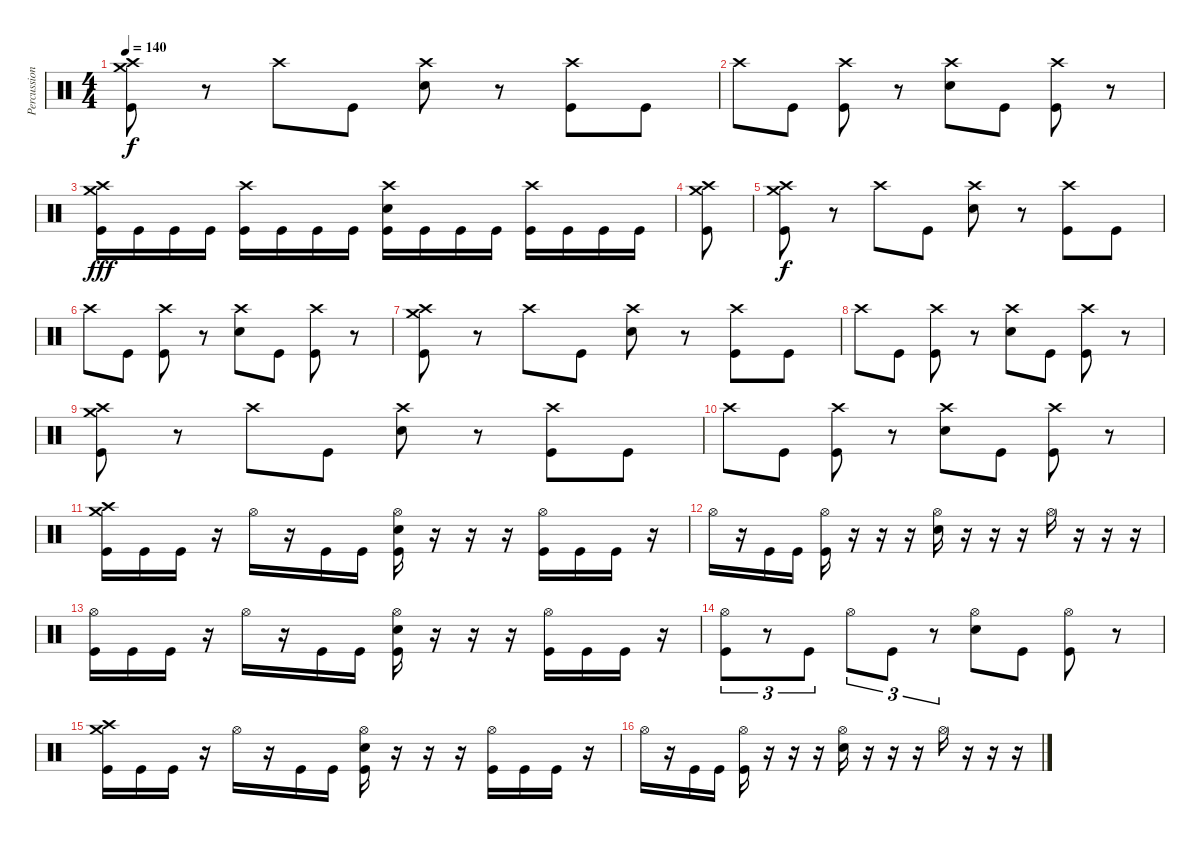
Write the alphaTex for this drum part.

\track ("Percussion" "Percussion") {instrument percussion}
\staff {score}
\articulation defaults
\ts (4 4)
\tempo 140
\clef neutral
\ks c
("Crash medium (hit)" "Crash high (hit)" "Kick (hit)").8{dy f} r.8 "Crash high (hit)".8 "Kick (hit)".8 ("Crash high (hit)" "Snare (hit) 2").8 r.8 ("Crash high (hit)" "Kick (hit)").8 "Kick (hit)".8 |
"Crash high (hit)".8 "Kick (hit)".8 ("Crash high (hit)" "Kick (hit)").8 r.8 ("Crash high (hit)" "Snare (hit) 2").8 "Kick (hit)".8 ("Crash high (hit)" "Kick (hit)").8 r.8 |
("Crash high (hit)" "Crash medium (hit)" "Kick (hit)").16{dy fff} "Kick (hit)".16 "Kick (hit)".16 "Kick (hit)".16 ("Crash high (hit)" "Kick (hit)").16 "Kick (hit)".16 "Kick (hit)".16 "Kick (hit)".16 ("Crash high (hit)" "Snare (hit) 2" "Kick (hit)").16 "Kick (hit)".16 "Kick (hit)".16 "Kick (hit)".16 ("Crash high (hit)" "Kick (hit)").16 "Kick (hit)".16 "Kick (hit)".16 "Kick (hit)".16 |
("Crash medium (hit)" "Crash high (hit)" "Kick (hit)").8 |
("Crash medium (hit)" "Crash high (hit)" "Kick (hit)").8{dy f} r.8 "Crash high (hit)".8 "Kick (hit)".8 ("Crash high (hit)" "Snare (hit) 2").8 r.8 ("Crash high (hit)" "Kick (hit)").8 "Kick (hit)".8 |
"Crash high (hit)".8 "Kick (hit)".8 ("Crash high (hit)" "Kick (hit)").8 r.8 ("Crash high (hit)" "Snare (hit) 2").8 "Kick (hit)".8 ("Crash high (hit)" "Kick (hit)").8 r.8 |
("Crash medium (hit)" "Crash high (hit)" "Kick (hit)").8 r.8 "Crash high (hit)".8 "Kick (hit)".8 ("Crash high (hit)" "Snare (hit) 2").8 r.8 ("Crash high (hit)" "Kick (hit)").8 "Kick (hit)".8 |
"Crash high (hit)".8 "Kick (hit)".8 ("Crash high (hit)" "Kick (hit)").8 r.8 ("Crash high (hit)" "Snare (hit) 2").8 "Kick (hit)".8 ("Crash high (hit)" "Kick (hit)").8 r.8 |
("Crash medium (hit)" "Crash high (hit)" "Kick (hit)").8 r.8 "Crash high (hit)".8 "Kick (hit)".8 ("Crash high (hit)" "Snare (hit) 2").8 r.8 ("Crash high (hit)" "Kick (hit)").8 "Kick (hit)".8 |
"Crash high (hit)".8 "Kick (hit)".8 ("Crash high (hit)" "Kick (hit)").8 r.8 ("Crash high (hit)" "Snare (hit) 2").8 "Kick (hit)".8 ("Crash high (hit)" "Kick (hit)").8 r.8 |
("Crash high (hit)" "Crash medium (hit)" "Kick (hit)").16 "Kick (hit)".16 "Kick (hit)".16 r.16 "Hi-Hat (open)".16 r.16 "Kick (hit)".16 "Kick (hit)".16 ("Hi-Hat (open)" "Snare (hit) 2" "Kick (hit)").16 r.16 r.16 r.16 ("Hi-Hat (open)" "Kick (hit)").16 "Kick (hit)".16 "Kick (hit)".16 r.16 |
"Hi-Hat (open)".16 r.16 "Kick (hit)".16 "Kick (hit)".16 ("Hi-Hat (open)" "Kick (hit)").16 r.16 r.16 r.16 ("Hi-Hat (open)" "Snare (hit) 2").16 r.16 r.16 r.16 "Hi-Hat (open)".16 r.16 r.16 r.16 |
("Hi-Hat (open)" "Kick (hit)").16 "Kick (hit)".16 "Kick (hit)".16 r.16 "Hi-Hat (open)".16 r.16 "Kick (hit)".16 "Kick (hit)".16 ("Hi-Hat (open)" "Snare (hit) 2" "Kick (hit)").16 r.16 r.16 r.16 ("Hi-Hat (open)" "Kick (hit)").16 "Kick (hit)".16 "Kick (hit)".16 r.16 |
("Hi-Hat (open)" "Kick (hit)").8{tu (3 2)} r.8{tu (3 2)} "Kick (hit)".8{tu (3 2)} "Hi-Hat (open)".8{tu (3 2)} "Kick (hit)".8{tu (3 2)} r.8{tu (3 2)} ("Hi-Hat (open)" "Snare (hit) 2").8 "Kick (hit)".8 ("Hi-Hat (open)" "Kick (hit)").8 r.8 |
("Crash high (hit)" "Crash medium (hit)" "Kick (hit)").16 "Kick (hit)".16 "Kick (hit)".16 r.16 "Hi-Hat (open)".16 r.16 "Kick (hit)".16 "Kick (hit)".16 ("Hi-Hat (open)" "Snare (hit) 2" "Kick (hit)").16 r.16 r.16 r.16 ("Hi-Hat (open)" "Kick (hit)").16 "Kick (hit)".16 "Kick (hit)".16 r.16 |
"Hi-Hat (open)".16 r.16 "Kick (hit)".16 "Kick (hit)".16 ("Hi-Hat (open)" "Kick (hit)").16 r.16 r.16 r.16 ("Hi-Hat (open)" "Snare (hit) 2").16 r.16 r.16 r.16 "Hi-Hat (open)".16 r.16 r.16 r.16
